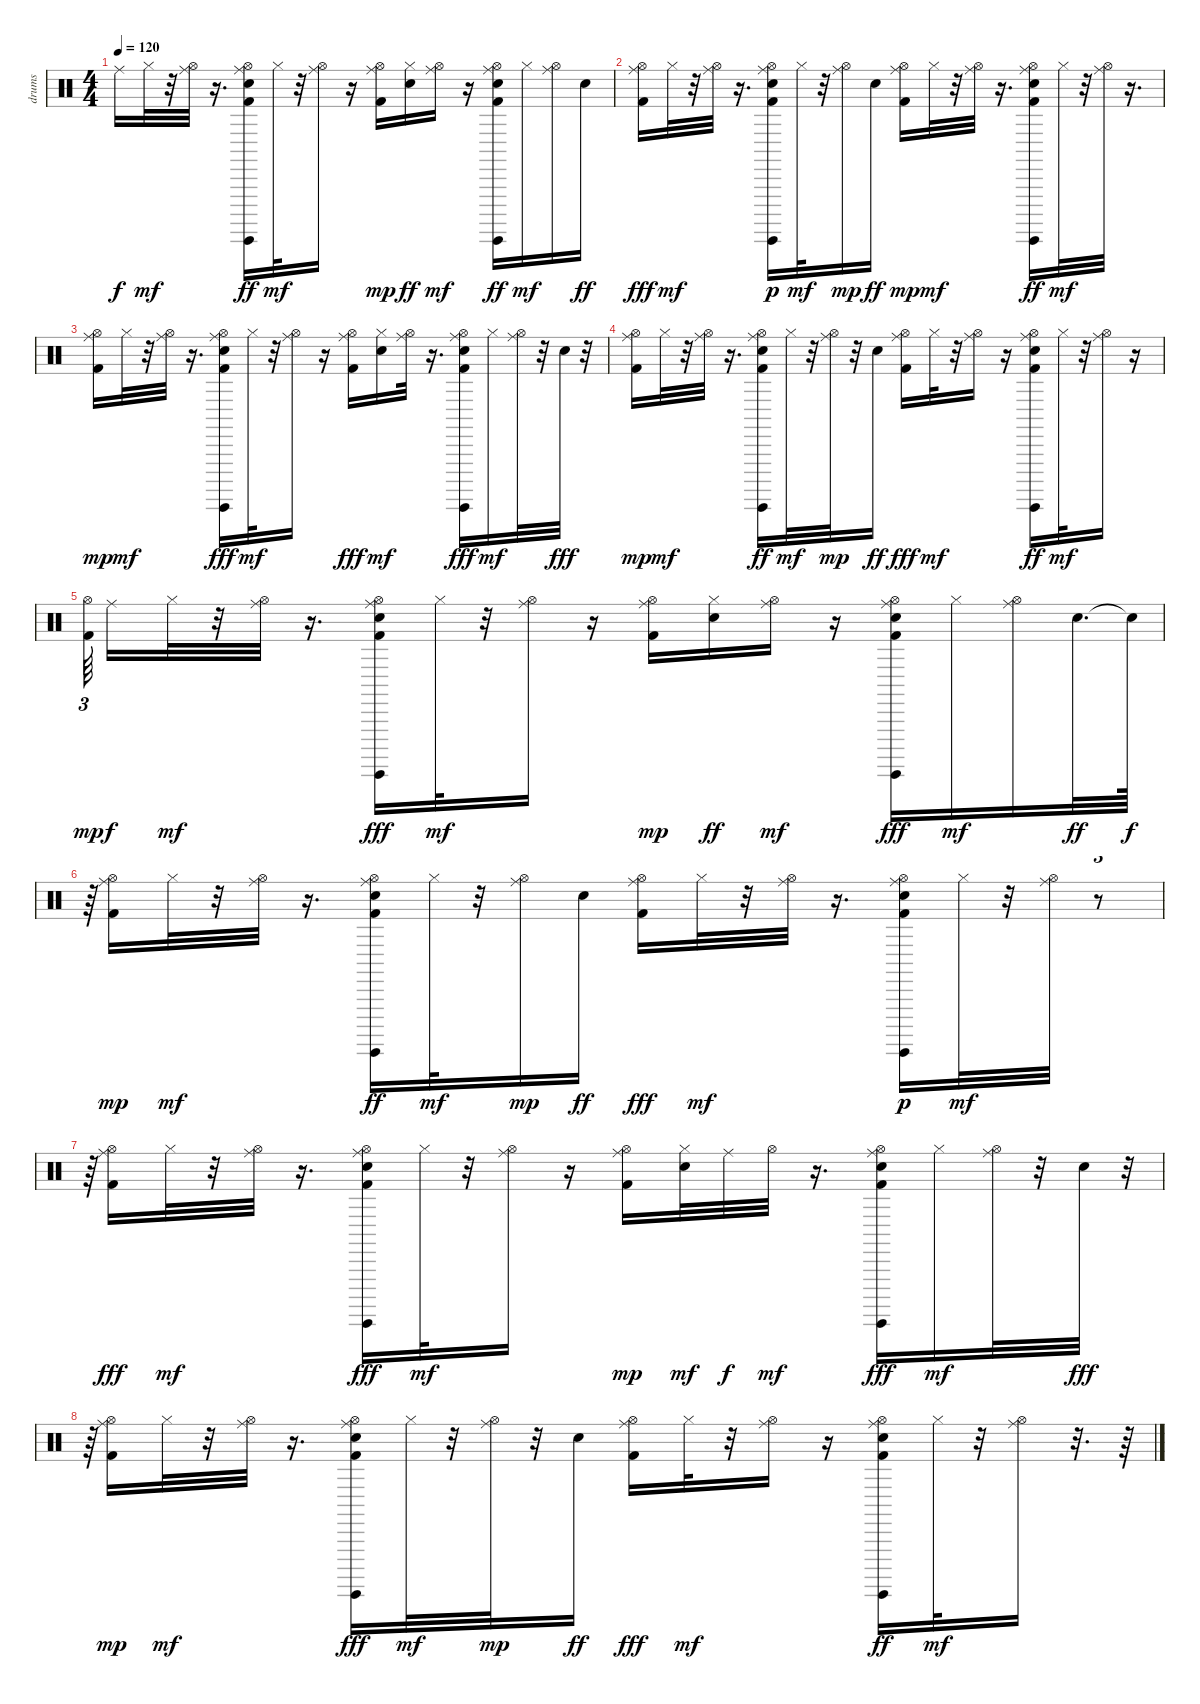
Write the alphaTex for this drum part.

\track ("drums                               " "drums     ") {instrument percussion}
\staff {score}
\articulation defaults
\ts (4 4)
\tempo 120
\clef neutral
\ks c "Ride (middle)".16{dy f} "Hi-Hat (closed)".32{dy mf}
r.32 ("Hi-Hat (open)" "Ride (middle)").32 r.16{d} ("Kick (hit) 2" "Hi-Hat (open)" "Guiro (hit)" "Electric Snare (hit)" "Ride (middle)").16{dy ff} "Hi-Hat (closed)".32{dy mf} r.32 ("Hi-Hat (open)" "Ride (middle)").16 r.16 ("Ride (middle)" "Kick (hit) 2" "Hi-Hat (open)").16{dy mp} ("Hi-Hat (closed)" "Electric Snare (hit)").16{dy ff} ("Hi-Hat (open)" "Ride (middle)").16{dy mf} r.16 ("Kick (hit) 2" "Guiro (hit)" "Hi-Hat (open)" "Electric Snare (hit)" "Ride (middle)").16{dy ff} "Hi-Hat (closed)".16{dy mf} ("Hi-Hat (open)" "Ride (middle)").16 "Electric Snare (hit)".16{dy ff} |
("Hi-Hat (open)" "Kick (hit) 2" "Ride (middle)").16{dy fff} "Hi-Hat (closed)".32{dy mf} r.32 ("Hi-Hat (open)" "Ride (middle)").32 r.16{d} ("Kick (hit) 2" "Guiro (hit)" "Electric Snare (hit)" "Hi-Hat (open)" "Ride (middle)").16{dy p} "Hi-Hat (closed)".32{dy mf} r.32 ("Hi-Hat (open)" "Ride (middle)").16{dy mp} "Electric Snare (hit)".16{dy ff} ("Ride (middle)" "Kick (hit) 2" "Hi-Hat (open)").16{dy mp} "Hi-Hat (closed)".32{dy mf} r.32 ("Hi-Hat (open)" "Ride (middle)").32 r.16{d} ("Kick (hit) 2" "Hi-Hat (open)" "Guiro (hit)" "Electric Snare (hit)" "Ride (middle)").16{dy ff} "Hi-Hat (closed)".32{dy mf} r.32 ("Hi-Hat (open)" "Ride (middle)").32 r.16{d} |
("Kick (hit) 2" "Hi-Hat (open)" "Ride (middle)").16{dy mp} "Hi-Hat (closed)".32{dy mf} r.32 ("Ride (middle)" "Hi-Hat (open)").32 r.16{d} ("Guiro (hit)" "Hi-Hat (open)" "Electric Snare (hit)" "Kick (hit) 2" "Ride (middle)").16{dy fff} "Hi-Hat (closed)".32{dy mf} r.32 ("Ride (middle)" "Hi-Hat (open)").16 r.16 ("Ride (middle)" "Hi-Hat (open)" "Kick (hit) 2").16{dy fff} ("Electric Snare (hit)" "Hi-Hat (closed)").16{dy mf} ("Ride (middle)" "Hi-Hat (open)").32 r.16{d} ("Ride (middle)" "Electric Snare (hit)" "Hi-Hat (open)" "Kick (hit) 2" "Guiro (hit)").16{dy fff} "Hi-Hat (closed)".16{dy mf} ("Ride (middle)" "Hi-Hat (open)").32 r.32 "Electric Snare (hit)".32{dy fff} r.32 |
("Ride (middle)" "Kick (hit) 2" "Hi-Hat (open)").16{dy mp} "Hi-Hat (closed)".32{dy mf} r.32 ("Ride (middle)" "Hi-Hat (open)").32 r.16{d} ("Guiro (hit)" "Hi-Hat (open)" "Kick (hit) 2" "Electric Snare (hit)" "Ride (middle)").16{dy ff} "Hi-Hat (closed)".32{dy mf} r.32 ("Hi-Hat (open)" "Ride (middle)").32{dy mp} r.32 "Electric Snare (hit)".16{dy ff} ("Hi-Hat (open)" "Kick (hit) 2" "Ride (middle)").16{dy fff} "Hi-Hat (closed)".32{dy mf} r.32 ("Ride (middle)" "Hi-Hat (open)").16 r.16 ("Hi-Hat (open)" "Guiro (hit)" "Kick (hit) 2" "Electric Snare (hit)" "Ride (middle)").16{dy ff} "Hi-Hat (closed)".32{dy mf} r.32 ("Hi-Hat (open)" "Ride (middle)").16 r.16 |
("Kick (hit) 2" "Hi-Hat (open)").64{tu (3 2) dy mp beam splitsecondary} "Ride (middle)".16{dy f} "Hi-Hat (closed)".32{dy mf} r.32 ("Hi-Hat (open)" "Ride (middle)").32 r.16{d} ("Hi-Hat (open)" "Electric Snare (hit)" "Guiro (hit)" "Kick (hit) 2" "Ride (middle)").16{dy fff} "Hi-Hat (closed)".32{dy mf} r.32 ("Hi-Hat (open)" "Ride (middle)").16 r.16 ("Ride (middle)" "Kick (hit) 2" "Hi-Hat (open)").16{dy mp} ("Hi-Hat (closed)" "Electric Snare (hit)").16{dy ff} ("Hi-Hat (open)" "Ride (middle)").16{dy mf} r.16 ("Guiro (hit)" "Hi-Hat (open)" "Electric Snare (hit)" "Kick (hit) 2" "Ride (middle)").16{dy fff} "Hi-Hat (closed)".16{dy mf} ("Hi-Hat (open)" "Ride (middle)").16 "Electric Snare (hit)".32{d dy ff} "Snare (hit)"{t}.64{dy f} |
r.64{tu (3 2)} ("Kick (hit) 2" "Hi-Hat (open)" "Ride (middle)").16{dy mp} "Hi-Hat (closed)".32{dy mf} r.32 ("Hi-Hat (open)" "Ride (middle)").32 r.16{d} ("Kick (hit) 2" "Hi-Hat (open)" "Electric Snare (hit)" "Guiro (hit)" "Ride (middle)").16{dy ff} "Hi-Hat (closed)".32{dy mf} r.32 ("Hi-Hat (open)" "Ride (middle)").16{dy mp} "Electric Snare (hit)".16{dy ff} ("Ride (middle)" "Hi-Hat (open)" "Kick (hit) 2").16{dy fff} "Hi-Hat (closed)".32{dy mf} r.32 ("Hi-Hat (open)" "Ride (middle)").32 r.16{d} ("Electric Snare (hit)" "Guiro (hit)" "Kick (hit) 2" "Hi-Hat (open)" "Ride (middle)").16{dy p} "Hi-Hat (closed)".32{dy mf} r.32 ("Hi-Hat (open)" "Ride (middle)").32 r.8{tu (3 2)} |
r.64{tu (3 2)} ("Hi-Hat (open)" "Kick (hit) 2" "Ride (middle)").16{dy fff} "Hi-Hat (closed)".32{dy mf} r.32 ("Ride (middle)" "Hi-Hat (open)").32 r.16{d} ("Guiro (hit)" "Hi-Hat (open)" "Kick (hit) 2" "Electric Snare (hit)" "Ride (middle)").16{dy fff} "Hi-Hat (closed)".32{dy mf} r.32 ("Ride (middle)" "Hi-Hat (open)").16 r.16 ("Ride (middle)" "Kick (hit) 2" "Hi-Hat (open)").16{dy mp} ("Electric Snare (hit)" "Hi-Hat (closed)").32{dy mf} "Ride (middle)".32{dy f} "Hi-Hat (open)".32{dy mf} r.16{d} ("Ride (middle)" "Electric Snare (hit)" "Hi-Hat (open)" "Guiro (hit)" "Kick (hit) 2").16{dy fff} "Hi-Hat (closed)".16{dy mf} ("Ride (middle)" "Hi-Hat (open)").32 r.32 "Electric Snare (hit)".32{dy fff} r.32{tu (3 2)} |
r.64{tu (3 2)} ("Kick (hit) 2" "Hi-Hat (open)" "Ride (middle)").16{dy mp} "Hi-Hat (closed)".32{dy mf} r.32 ("Ride (middle)" "Hi-Hat (open)").32 r.16{d} ("Hi-Hat (open)" "Electric Snare (hit)" "Guiro (hit)" "Kick (hit) 2" "Ride (middle)").16{dy fff} "Hi-Hat (closed)".32{dy mf} r.32 ("Hi-Hat (open)" "Ride (middle)").32{dy mp} r.32 "Electric Snare (hit)".16{dy ff} ("Hi-Hat (open)" "Kick (hit) 2" "Ride (middle)").16{dy fff} "Hi-Hat (closed)".32{dy mf} r.32 ("Ride (middle)" "Hi-Hat (open)").16 r.16 ("Kick (hit) 2" "Guiro (hit)" "Hi-Hat (open)" "Electric Snare (hit)" "Ride (middle)").16{dy ff} "Hi-Hat (closed)".32{dy mf} r.32 ("Hi-Hat (open)" "Ride (middle)").16 r.32{d} r.64
